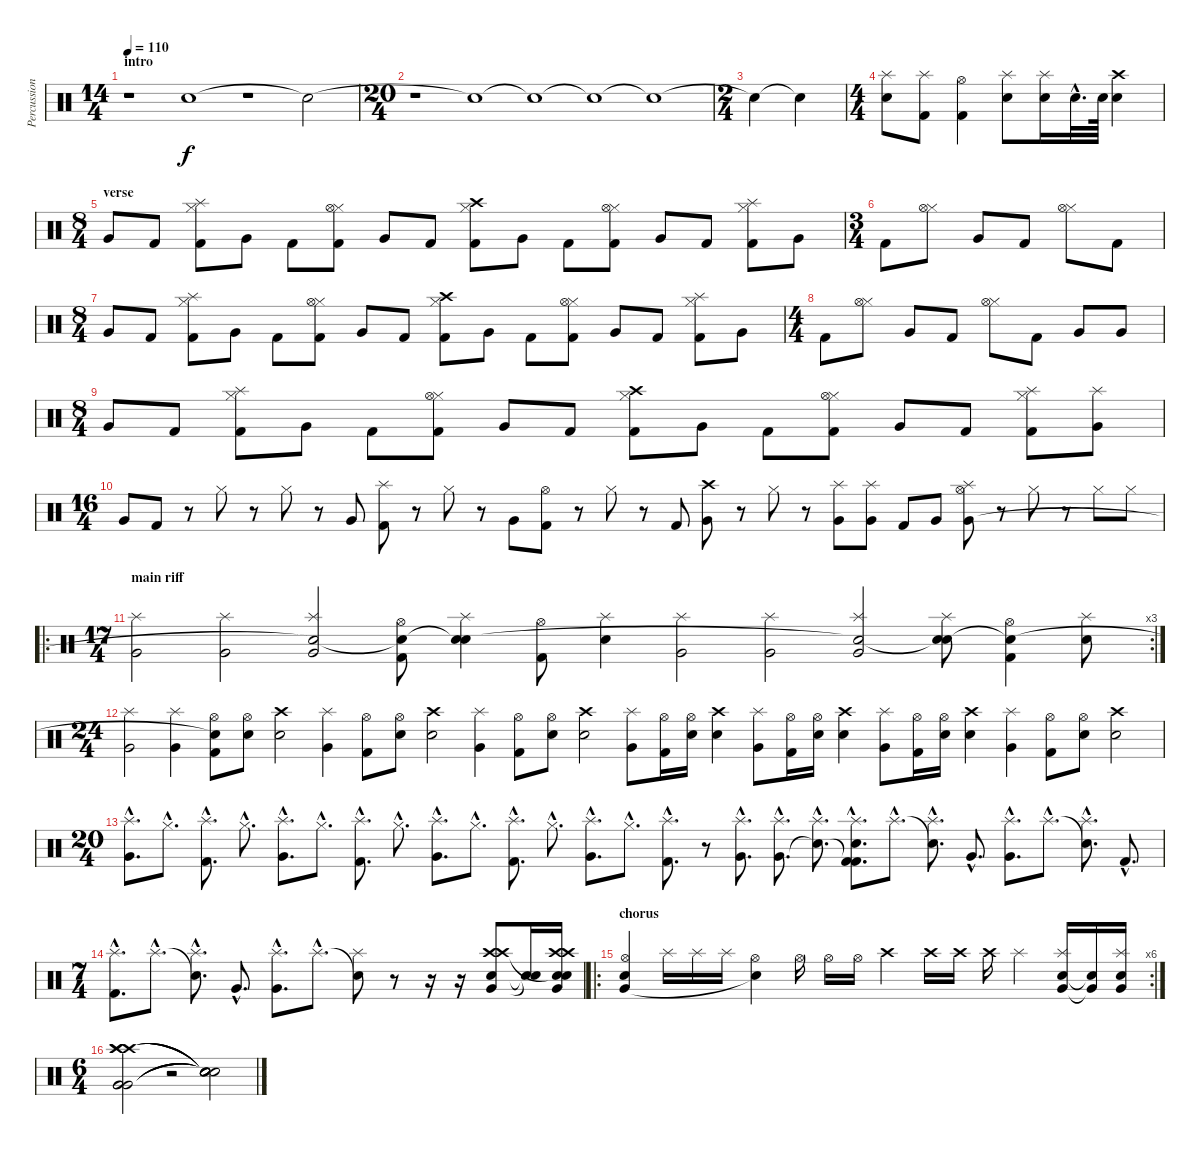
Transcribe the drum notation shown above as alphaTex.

\track ("Percussions" "Percussion") {instrument percussion}
\staff {score}
\articulation defaults
\ts (14 4)
\section ("" "intro")
\tempo 110
\clef neutral
\ks c
r.1{dy f} "Snare (hit)".1 r.1 "Snare (hit)"{t}.2 |
\ts (20 4)
r.1 "Snare (hit)"{t}.1 "Snare (hit)"{t}.1 "Snare (hit)"{t}.1 "Snare (hit)"{t}.1 |
\ts (2 4)
"Snare (hit)"{t}.4 "Snare (hit)"{t}.4 |
\ts (4 4)
("Snare (hit) 2" "Splash (hit)").8 ("Kick (hit) 2" "Splash (hit)").8 ("Kick (hit) 2" "Hi-Hat (open)").4 ("Snare (hit) 2" "Splash (hit)").8 ("Snare (hit) 2" "Splash (hit)").16 "Snare (hit) 2"{hac}.32{d} "Snare (hit) 2".64 ("Snare (hit) 2" "Crash high (hit)").4 |
\ts (8 4)
\section ("" "verse")
"Very Low Tom (hit)".8 "Kick (hit) 2".8 ("Kick (hit) 2" "Hi-Hat (closed)" "Splash (hit)").8 "Very Low Tom (hit)".8 "Kick (hit) 2".8 ("Kick (hit) 2" "Hi-Hat (closed)" "Hi-Hat (open)").8 "Very Low Tom (hit)".8 "Kick (hit) 2".8 ("Kick (hit) 2" "Hi-Hat (closed)" "Crash high (hit)").8 "Very Low Tom (hit)".8 "Kick (hit) 2".8 ("Kick (hit) 2" "Hi-Hat (closed)" "Hi-Hat (open)").8 "Very Low Tom (hit)".8 "Kick (hit) 2".8 ("Kick (hit) 2" "Hi-Hat (closed)" "Splash (hit)").8 "Very Low Tom (hit)".8 |
\ts (3 4)
"Kick (hit) 2".8 ("Hi-Hat (closed)" "Hi-Hat (open)").8 "Very Low Tom (hit)".8 "Kick (hit) 2".8 ("Hi-Hat (closed)" "Hi-Hat (open)").8 "Kick (hit) 2".8 |
\ts (8 4)
"Very Low Tom (hit)".8 "Kick (hit) 2".8 ("Kick (hit) 2" "Hi-Hat (closed)" "Splash (hit)").8 "Very Low Tom (hit)".8 "Kick (hit) 2".8 ("Kick (hit) 2" "Hi-Hat (closed)" "Hi-Hat (open)").8 "Very Low Tom (hit)".8 "Kick (hit) 2".8 ("Kick (hit) 2" "Hi-Hat (closed)" "Crash high (hit)").8 "Very Low Tom (hit)".8 "Kick (hit) 2".8 ("Kick (hit) 2" "Hi-Hat (closed)" "Hi-Hat (open)").8 "Very Low Tom (hit)".8 "Kick (hit) 2".8 ("Kick (hit) 2" "Hi-Hat (closed)" "Splash (hit)").8 "Very Low Tom (hit)".8 |
\ts (4 4)
"Kick (hit) 2".8 ("Hi-Hat (closed)" "Hi-Hat (open)").8 "Very Low Tom (hit)".8 "Kick (hit) 2".8 ("Hi-Hat (closed)" "Hi-Hat (open)").8 "Kick (hit) 2".8 "Very Low Tom (hit)".8 "Very Low Tom (hit)".8 |
\ts (8 4)
"Very Low Tom (hit)".8 "Kick (hit) 2".8 ("Kick (hit) 2" "Hi-Hat (closed)" "Splash (hit)").8 "Very Low Tom (hit)".8 "Kick (hit) 2".8 ("Kick (hit) 2" "Hi-Hat (closed)" "Hi-Hat (open)").8 "Very Low Tom (hit)".8 "Kick (hit) 2".8 ("Kick (hit) 2" "Hi-Hat (closed)" "Crash high (hit)").8 "Very Low Tom (hit)".8 "Kick (hit) 2".8 ("Kick (hit) 2" "Hi-Hat (closed)" "Hi-Hat (open)").8 "Very Low Tom (hit)".8 "Kick (hit) 2".8 ("Kick (hit) 2" "Hi-Hat (closed)" "Splash (hit)").8 ("Very Low Tom (hit)" "Splash (hit)").8 |
\ts (16 4)
"Very Low Tom (hit)".8 "Kick (hit) 2".8 r.8 "Hi-Hat (closed)".8 r.8 "Hi-Hat (closed)".8 r.8 "Very Low Tom (hit)".8 ("Splash (hit)" "Kick (hit) 2").8 r.8 "Hi-Hat (closed)".8 r.8 "Very Low Tom (hit)".8 ("Hi-Hat (open)" "Kick (hit) 2").8 r.8 "Hi-Hat (closed)".8 r.8 "Kick (hit) 2".8 ("Very Low Tom (hit)" "Crash high (hit)").8 r.8 "Hi-Hat (closed)".8 r.8 ("Very Low Tom (hit)" "Splash (hit)").8 ("Very Low Tom (hit)" "Splash (hit)").8 "Kick (hit) 2".8 "Very Low Tom (hit)".8 ("Hi-Hat (open)" "Splash (hit)" "Very Low Tom (hit)").8 r.8 "Hi-Hat (closed)".8 r.8 "Hi-Hat (closed)".8 "Hi-Hat (closed)".8 |
\ro
\rc 3
\ts (17 4)
\section ("" "main riff ")
("Splash (hit)" "Very Low Tom (hit)").2 ("Splash (hit)" "Very Low Tom (hit)").2 ("Splash (hit)" "Very Low Tom (hit)" "Snare (hit)"{t}).2 ("Kick (hit) 2" "Hi-Hat (open)" "Snare (hit)"{t}).8 ("Snare (hit) 2" "Splash (hit)" "Snare (hit)"{t}).4 ("Kick (hit) 2" "Hi-Hat (open)").8 ("Snare (hit) 2" "Splash (hit)").4 ("Splash (hit)" "Very Low Tom (hit)").2 ("Splash (hit)" "Very Low Tom (hit)").2 ("Splash (hit)" "Very Low Tom (hit)" "Snare (hit)"{t}).2 ("Snare (hit) 2" "Splash (hit)" "Snare (hit)"{t}).8 ("Kick (hit) 2" "Hi-Hat (open)" "Snare (hit)"{t}).4 ("Snare (hit) 2" "Splash (hit)").8 |
\ts (24 4)
("Splash (hit)" "Very Low Tom (hit)").2 ("Very Low Tom (hit)" "Splash (hit)").4 ("Kick (hit) 2" "Hi-Hat (open)" "Snare (hit)"{t}).8 ("Snare (hit) 2" "Hi-Hat (open)").8 ("Snare (hit) 2" "Crash high (hit)").2 ("Very Low Tom (hit)" "Splash (hit)").4 ("Kick (hit) 2" "Hi-Hat (open)").8 ("Snare (hit) 2" "Hi-Hat (open)").8 ("Snare (hit) 2" "Crash high (hit)").2 ("Very Low Tom (hit)" "Splash (hit)").4 ("Kick (hit) 2" "Hi-Hat (open)").8 ("Snare (hit) 2" "Hi-Hat (open)").8 ("Snare (hit) 2" "Crash high (hit)").2 ("Very Low Tom (hit)" "Splash (hit)").8 ("Kick (hit) 2" "Hi-Hat (open)").16 ("Snare (hit) 2" "Hi-Hat (open)").16 ("Snare (hit) 2" "Crash high (hit)").4 ("Very Low Tom (hit)" "Splash (hit)").8 ("Kick (hit) 2" "Hi-Hat (open)").16 ("Snare (hit) 2" "Hi-Hat (open)").16 ("Snare (hit) 2" "Crash high (hit)").4 ("Very Low Tom (hit)" "Splash (hit)").8 ("Kick (hit) 2" "Hi-Hat (open)").16 ("Snare (hit) 2" "Hi-Hat (open)").16 ("Snare (hit) 2" "Crash high (hit)").4 ("Very Low Tom (hit)" "Splash (hit)").4 ("Kick (hit) 2" "Hi-Hat (open)").8 ("Snare (hit) 2" "Hi-Hat (open)").8 ("Snare (hit) 2" "Crash high (hit)").2 |
\ts (20 4)
("Very Low Tom (hit)"{hac} "Splash (hit)"{hac}).8{d} "Hi-Hat (closed)"{hac}.8{d} ("Kick (hit) 2"{hac} "Splash (hit)"{hac}).8{d} "Hi-Hat (closed)"{hac}.8{d} ("Very Low Tom (hit)"{hac} "Splash (hit)"{hac}).8{d} "Hi-Hat (closed)"{hac}.8{d} ("Kick (hit) 2"{hac} "Splash (hit)"{hac}).8{d} "Hi-Hat (closed)"{hac}.8{d} ("Very Low Tom (hit)"{hac} "Splash (hit)"{hac}).8{d} "Hi-Hat (closed)"{hac}.8{d} ("Kick (hit) 2"{hac} "Splash (hit)"{hac}).8{d} "Hi-Hat (closed)"{hac}.8{d} ("Very Low Tom (hit)"{hac} "Splash (hit)"{hac}).8{d} "Hi-Hat (closed)"{hac}.8{d} ("Kick (hit) 2"{hac} "Splash (hit)"{hac}).8{d} r.8 ("Very Low Tom (hit)"{hac} "Splash (hit)"{hac}).8{d} ("Very Low Tom (hit)"{hac} "Splash (hit)"{hac}).8{d} ("Snare (hit)"{hac t} "Splash (hit)"{hac}).8{d} ("Kick (hit) 2"{hac t} "Kick (hit) 2"{hac} "Splash (hit)"{hac} "Snare (hit)"{hac}).8{d} "Splash (hit)"{hac}.8{d} ("Snare (hit)"{hac t} "Splash (hit)"{hac}).8{d} "Very Low Tom (hit)"{hac}.8{d} ("Very Low Tom (hit)"{hac} "Splash (hit)"{hac}).8{d} "Splash (hit)"{hac}.8{d} ("Snare (hit)"{hac t} "Splash (hit)"{hac}).8{d} "Kick (hit) 2"{hac}.8{d} |
\ts (7 4)
("Kick (hit) 2"{hac} "Splash (hit)"{hac}).8{d} "Splash (hit)"{hac}.8{d} ("Snare (hit)"{hac t} "Splash (hit)"{hac}).8{d} "Very Low Tom (hit)"{hac}.8{d} ("Very Low Tom (hit)"{hac} "Splash (hit)"{hac}).8{d} "Splash (hit)"{hac}.8{d} ("Snare (hit)"{t} "Splash (hit)").8 r.8 r.16 r.16 ("Very Low Tom (hit)" "Snare (hit) 2" "Crash high (hit)" "Crash high (hit)").8 ("Snare (hit)"{t} "Snare (hit)"{t}).16 ("Very Low Tom (hit)" "Snare (hit) 2" "Snare (hit)"{t} "Crash high (hit)" "Crash high (hit)").16 |
\ro
\rc 6
\section ("" "chorus")
("Snare (hit) 2" "Very Low Tom (hit)" "Hi-Hat (open)").4 "Splash (hit)".16 "Splash (hit)".16 "Splash (hit)".16 ("Hi-Hat (open)" "Snare (hit)"{t}).4 "Hi-Hat (open)".16 "Hi-Hat (open)".16 "Hi-Hat (open)".16 "Crash high (hit)".4 "Crash high (hit)".16 "Crash high (hit)".16 "Crash high (hit)".16 "Splash (hit)".4 ("Snare (hit) 2" "Very Low Tom (hit)" "Splash (hit)").16 ("Snare (hit) 2"{t} "Very Low Tom (hit)"{t}).16 ("Very Low Tom (hit)" "Snare (hit) 2" "Splash (hit)").16 |
\ts (6 4)
("Very Low Tom (hit)" "Very Low Tom (hit)" "Very Low Tom (hit)" "Crash high (hit)" "Crash high (hit)" "Crash high (hit)").2 r.2 ("Snare (hit)"{t} "Snare (hit)"{t} "Snare (hit)"{t} "Snare (hit)"{t} "Snare (hit)"{t} "Snare (hit)"{t}).2
